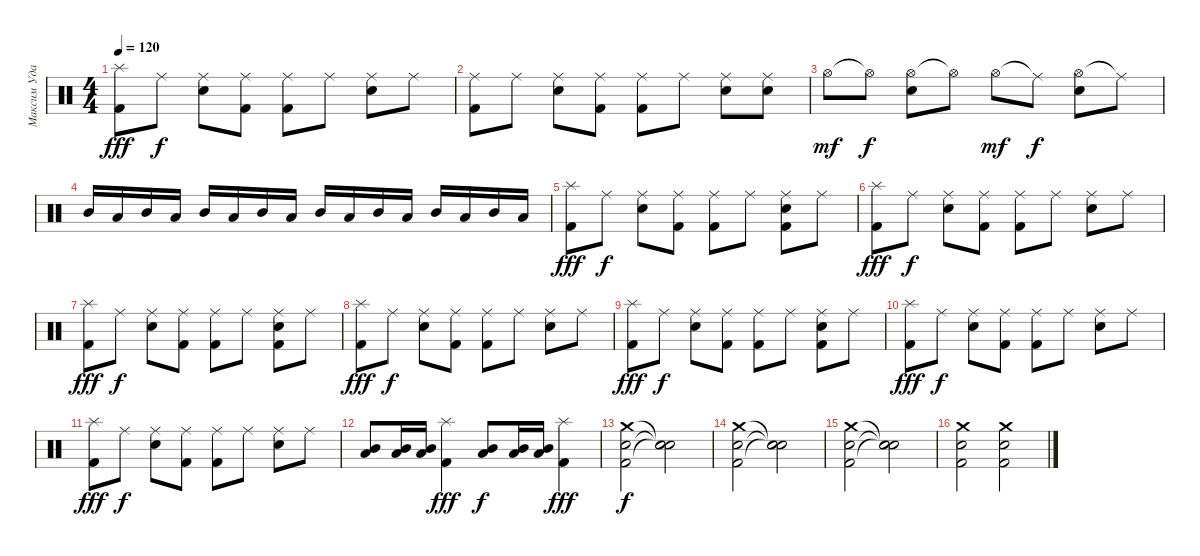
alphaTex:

\track ("Максим Удалов" "Максим Уда") {instrument percussion}
\staff {score}
\articulation defaults
\ts (4 4)
\tempo 120
\clef neutral
\ks c
("Kick (hit) 2" "Splash (hit)").8{dy fff} "Ride (middle)".8{dy f} ("Ride (middle)" "Electric Snare (hit)").8 ("Kick (hit) 2" "Ride (middle)").8 ("Kick (hit) 2" "Ride (middle)").8 "Ride (middle)".8 ("Ride (middle)" "Electric Snare (hit)").8 "Ride (middle)".8 |
("Kick (hit) 2" "Ride (middle)").8 "Ride (middle)".8 ("Ride (middle)" "Electric Snare (hit)").8 ("Kick (hit) 2" "Ride (middle)").8 ("Kick (hit) 2" "Ride (middle)").8 "Ride (middle)".8 ("Ride (middle)" "Electric Snare (hit)").8 ("Ride (middle)" "Electric Snare (hit)").8 |
"Hi-Hat (open)".8{dy mf} "Hi-Hat (open)"{t}.8{dy f} ("Hi-Hat (open)" "Electric Snare (hit)").8 "Hi-Hat (open)"{t}.8 "Hi-Hat (open)".8{dy mf} "Ride (middle)"{t}.8{dy f} ("Hi-Hat (open)" "Electric Snare (hit)").8 "Ride (middle)"{t}.8 |
"Mid Tom (hit)".16 "Low Tom (hit)".16 "Mid Tom (hit)".16 "Low Tom (hit)".16 "Mid Tom (hit)".16 "Low Tom (hit)".16 "Mid Tom (hit)".16 "Low Tom (hit)".16 "Mid Tom (hit)".16 "Low Tom (hit)".16 "Mid Tom (hit)".16 "Low Tom (hit)".16 "Mid Tom (hit)".16 "Low Tom (hit)".16 "Mid Tom (hit)".16 "Low Tom (hit)".16 |
("Kick (hit) 2" "Splash (hit)").8{dy fff} "Ride (middle)".8{dy f} ("Ride (middle)" "Electric Snare (hit)").8 ("Kick (hit) 2" "Ride (middle)").8 ("Kick (hit) 2" "Ride (middle)").8 "Ride (middle)".8 ("Kick (hit) 2" "Ride (middle)" "Electric Snare (hit)").8 "Ride (middle)".8 |
("Kick (hit) 2" "Splash (hit)").8{dy fff} "Ride (middle)".8{dy f} ("Ride (middle)" "Electric Snare (hit)").8 ("Kick (hit) 2" "Ride (middle)").8 ("Kick (hit) 2" "Ride (middle)").8 "Ride (middle)".8 ("Ride (middle)" "Electric Snare (hit)").8 "Ride (middle)".8 |
("Kick (hit) 2" "Splash (hit)").8{dy fff} "Ride (middle)".8{dy f} ("Ride (middle)" "Electric Snare (hit)").8 ("Kick (hit) 2" "Ride (middle)").8 ("Kick (hit) 2" "Ride (middle)").8 "Ride (middle)".8 ("Kick (hit) 2" "Ride (middle)" "Electric Snare (hit)").8 "Ride (middle)".8 |
("Kick (hit) 2" "Splash (hit)").8{dy fff} "Ride (middle)".8{dy f} ("Ride (middle)" "Electric Snare (hit)").8 ("Kick (hit) 2" "Ride (middle)").8 ("Kick (hit) 2" "Ride (middle)").8 "Ride (middle)".8 ("Ride (middle)" "Electric Snare (hit)").8 "Ride (middle)".8 |
("Kick (hit) 2" "Splash (hit)").8{dy fff} "Ride (middle)".8{dy f} ("Ride (middle)" "Electric Snare (hit)").8 ("Kick (hit) 2" "Ride (middle)").8 ("Kick (hit) 2" "Ride (middle)").8 "Ride (middle)".8 ("Kick (hit) 2" "Ride (middle)" "Electric Snare (hit)").8 "Ride (middle)".8 |
("Kick (hit) 2" "Splash (hit)").8{dy fff} "Ride (middle)".8{dy f} ("Ride (middle)" "Electric Snare (hit)").8 ("Kick (hit) 2" "Ride (middle)").8 ("Kick (hit) 2" "Ride (middle)").8 "Ride (middle)".8 ("Ride (middle)" "Electric Snare (hit)").8 "Ride (middle)".8 |
("Kick (hit) 2" "Splash (hit)").8{dy fff} "Ride (middle)".8{dy f} ("Ride (middle)" "Electric Snare (hit)").8 ("Kick (hit) 2" "Ride (middle)").8 ("Kick (hit) 2" "Ride (middle)").8 "Ride (middle)".8 ("Ride (middle)" "Electric Snare (hit)").8 "Ride (middle)".8 |
("Low Tom (hit)" "Mid Tom (hit)").8 ("Mid Tom (hit)" "Low Tom (hit)").16 ("Mid Tom (hit)" "Low Tom (hit)").16 ("Kick (hit) 2" "Splash (hit)").4{dy fff} ("Low Tom (hit)" "Mid Tom (hit)").8{dy f} ("Mid Tom (hit)" "Low Tom (hit)").16 ("Low Tom (hit)" "Mid Tom (hit)").16 ("Kick (hit) 2" "Splash (hit)").4{dy fff} |
("Crash medium (hit)" "Electric Snare (hit)" "Kick (hit) 2").2{dy f} ("Snare (hit)"{t} "Snare (hit)"{t} "Snare (hit)"{t}).2 |
("Crash medium (hit)" "Electric Snare (hit)" "Kick (hit) 2").2 ("Snare (hit)"{t} "Snare (hit)"{t} "Snare (hit)"{t}).2 |
("Crash medium (hit)" "Electric Snare (hit)" "Kick (hit) 2").2 ("Snare (hit)"{t} "Snare (hit)"{t} "Snare (hit)"{t}).2 |
("Crash medium (hit)" "Electric Snare (hit)" "Kick (hit) 2").2 ("Crash medium (hit)" "Electric Snare (hit)" "Kick (hit) 2").2
